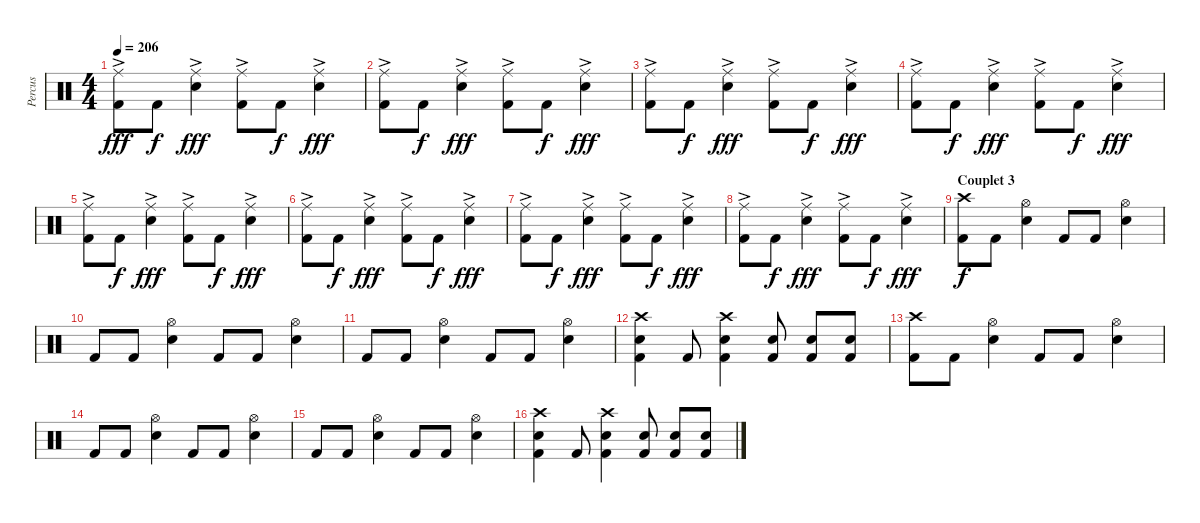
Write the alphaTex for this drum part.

\track ("Percus" "Percus") {instrument percussion}
\staff {score}
\articulation defaults
\ts (4 4)
\tempo 206
\clef neutral
\ks c
("Ride (middle)"{ac} "Kick (hit) 2").8{dy fff} "Kick (hit) 2".8{dy f} ("Ride (middle)"{ac} "Snare (hit) 2").4{dy fff} ("Ride (middle)"{ac} "Kick (hit) 2").8 "Kick (hit) 2".8{dy f} ("Ride (middle)"{ac} "Snare (hit) 2").4{dy fff} |
("Ride (middle)"{ac} "Kick (hit) 2").8 "Kick (hit) 2".8{dy f} ("Ride (middle)"{ac} "Snare (hit) 2").4{dy fff} ("Ride (middle)"{ac} "Kick (hit) 2").8 "Kick (hit) 2".8{dy f} ("Ride (middle)"{ac} "Snare (hit) 2").4{dy fff} |
("Ride (middle)"{ac} "Kick (hit) 2").8 "Kick (hit) 2".8{dy f} ("Ride (middle)"{ac} "Snare (hit) 2").4{dy fff} ("Ride (middle)"{ac} "Kick (hit) 2").8 "Kick (hit) 2".8{dy f} ("Ride (middle)"{ac} "Snare (hit) 2").4{dy fff} |
("Ride (middle)"{ac} "Kick (hit) 2").8 "Kick (hit) 2".8{dy f} ("Ride (middle)"{ac} "Snare (hit) 2").4{dy fff} ("Ride (middle)"{ac} "Kick (hit) 2").8 "Kick (hit) 2".8{dy f} ("Ride (middle)"{ac} "Snare (hit) 2").4{dy fff} |
("Ride (middle)"{ac} "Kick (hit) 2").8 "Kick (hit) 2".8{dy f} ("Ride (middle)"{ac} "Snare (hit) 2").4{dy fff} ("Ride (middle)"{ac} "Kick (hit) 2").8 "Kick (hit) 2".8{dy f} ("Ride (middle)"{ac} "Snare (hit) 2").4{dy fff} |
("Ride (middle)"{ac} "Kick (hit) 2").8 "Kick (hit) 2".8{dy f} ("Ride (middle)"{ac} "Snare (hit) 2").4{dy fff} ("Ride (middle)"{ac} "Kick (hit) 2").8 "Kick (hit) 2".8{dy f} ("Ride (middle)"{ac} "Snare (hit) 2").4{dy fff} |
("Ride (middle)"{ac} "Kick (hit) 2").8 "Kick (hit) 2".8{dy f} ("Ride (middle)"{ac} "Snare (hit) 2").4{dy fff} ("Ride (middle)"{ac} "Kick (hit) 2").8 "Kick (hit) 2".8{dy f} ("Ride (middle)"{ac} "Snare (hit) 2").4{dy fff} |
("Ride (middle)"{ac} "Kick (hit) 2").8 "Kick (hit) 2".8{dy f} ("Ride (middle)"{ac} "Snare (hit) 2").4{dy fff} ("Ride (middle)"{ac} "Kick (hit) 2").8 "Kick (hit) 2".8{dy f} ("Ride (middle)"{ac} "Snare (hit) 2").4{dy fff} |
\section ("" "Couplet 3")
("Crash high (hit)" "Kick (hit) 2").8{dy f} "Kick (hit) 2".8 ("Hi-Hat (open)" "Snare (hit) 2").4 "Kick (hit) 2".8 "Kick (hit) 2".8 ("Hi-Hat (open)" "Snare (hit) 2").4 |
"Kick (hit) 2".8 "Kick (hit) 2".8 ("Hi-Hat (open)" "Snare (hit) 2").4 "Kick (hit) 2".8 "Kick (hit) 2".8 ("Hi-Hat (open)" "Snare (hit) 2").4 |
"Kick (hit) 2".8 "Kick (hit) 2".8 ("Hi-Hat (open)" "Snare (hit) 2").4 "Kick (hit) 2".8 "Kick (hit) 2".8 ("Hi-Hat (open)" "Snare (hit) 2").4 |
("Crash high (hit)" "Snare (hit) 2" "Kick (hit) 2").4 "Kick (hit) 2".8 ("Crash high (hit)" "Snare (hit) 2" "Kick (hit) 2").4 ("Snare (hit) 2" "Kick (hit) 2").8 ("Snare (hit) 2" "Kick (hit) 2").8 ("Snare (hit) 2" "Kick (hit) 2").8 |
("Crash high (hit)" "Kick (hit) 2").8 "Kick (hit) 2".8 ("Hi-Hat (open)" "Snare (hit) 2").4 "Kick (hit) 2".8 "Kick (hit) 2".8 ("Hi-Hat (open)" "Snare (hit) 2").4 |
"Kick (hit) 2".8 "Kick (hit) 2".8 ("Hi-Hat (open)" "Snare (hit) 2").4 "Kick (hit) 2".8 "Kick (hit) 2".8 ("Hi-Hat (open)" "Snare (hit) 2").4 |
"Kick (hit) 2".8 "Kick (hit) 2".8 ("Hi-Hat (open)" "Snare (hit) 2").4 "Kick (hit) 2".8 "Kick (hit) 2".8 ("Hi-Hat (open)" "Snare (hit) 2").4 |
("Crash high (hit)" "Snare (hit) 2" "Kick (hit) 2").4 "Kick (hit) 2".8 ("Crash high (hit)" "Snare (hit) 2" "Kick (hit) 2").4 ("Snare (hit) 2" "Kick (hit) 2").8 ("Snare (hit) 2" "Kick (hit) 2").8 ("Snare (hit) 2" "Kick (hit) 2").8
